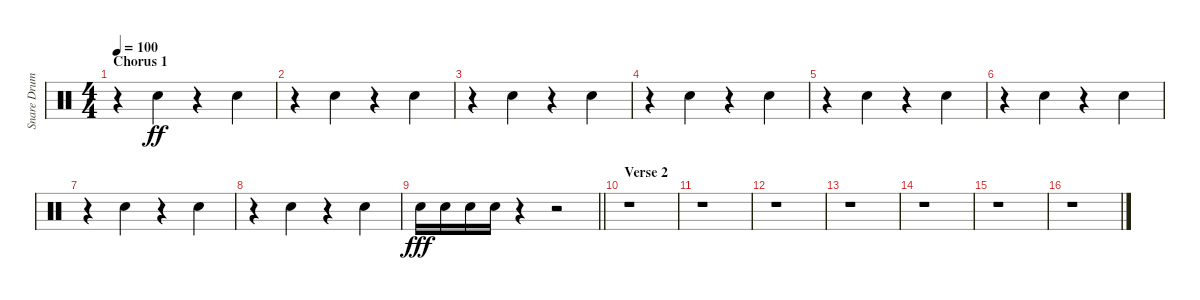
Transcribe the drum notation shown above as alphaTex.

\track ("Snare Drum" "Snare Drum") {instrument percussion}
\staff {score}
\articulation defaults
\ts (4 4)
\section ("" "Chorus 1")
\tempo 100
\clef neutral
\ks c
r.4{dy ff beam merge} "Electric Snare (hit)".4 r.4{beam merge} "Electric Snare (hit)".4 |
r.4{beam merge} "Electric Snare (hit)".4 r.4{beam merge} "Electric Snare (hit)".4 |
r.4{beam merge} "Electric Snare (hit)".4 r.4{beam merge} "Electric Snare (hit)".4 |
r.4{beam merge} "Electric Snare (hit)".4 r.4{beam merge} "Electric Snare (hit)".4 |
r.4{beam merge} "Electric Snare (hit)".4 r.4{beam merge} "Electric Snare (hit)".4 |
r.4{beam merge} "Electric Snare (hit)".4 r.4{beam merge} "Electric Snare (hit)".4 |
r.4{beam merge} "Electric Snare (hit)".4 r.4{beam merge} "Electric Snare (hit)".4 |
r.4{beam merge} "Electric Snare (hit)".4 r.4{beam merge} "Electric Snare (hit)".4 |
\barLineRight lightlight "Electric Snare (hit)".16{dy fff} "Electric Snare (hit)".16 "Electric Snare (hit)".16 "Electric Snare (hit)".16
r.4 r.2 |
\section ("" "Verse 2")
r.1 |
r.1 |
r.1 |
r.1 |
r.1 |
r.1 |
r.1
